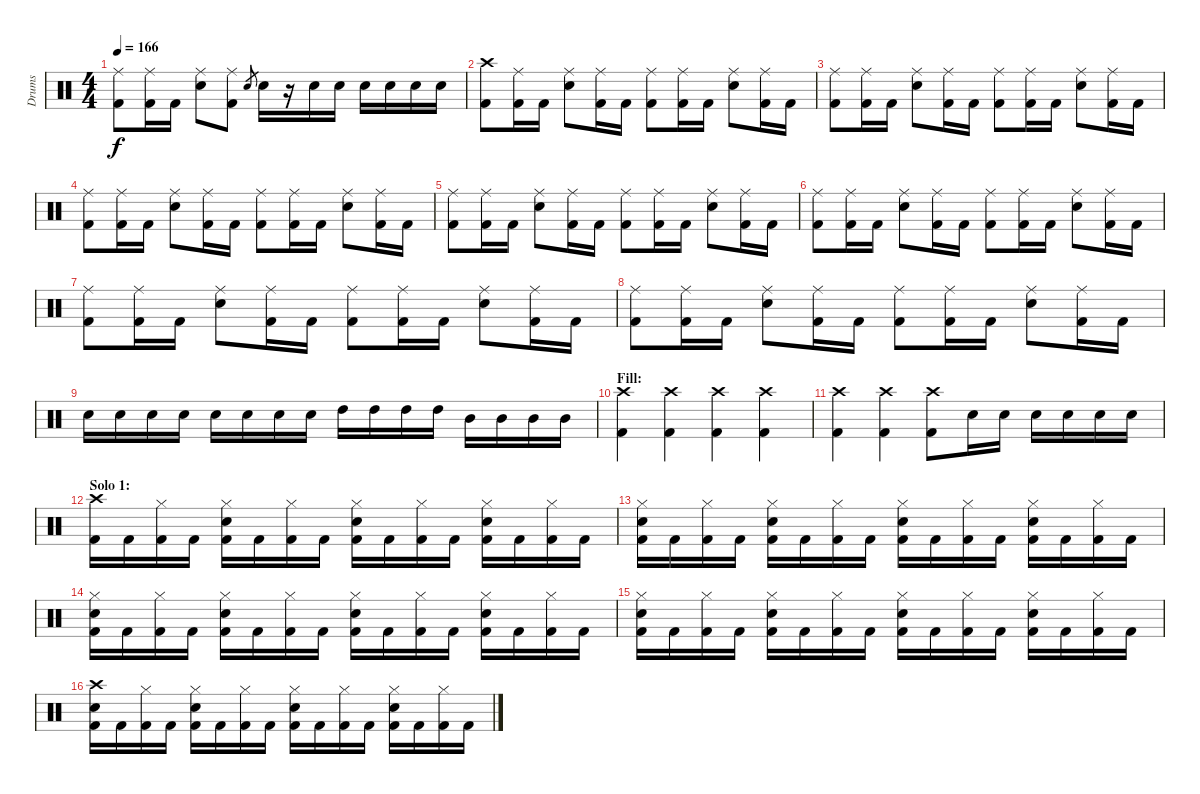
\track ("Drums" "Drums") {instrument percussion}
\staff {score}
\articulation defaults
\ts (4 4)
\tempo 166
\clef neutral
\ks c
("Ride (middle)" "Kick (hit) 2").8{dy f} ("Ride (middle)" "Kick (hit) 2").16 "Kick (hit) 2".16 ("Ride (middle)" "Electric Snare (hit)").8 ("Ride (middle)" "Kick (hit) 2").8 "Electric Snare (hit)".8{gr} "Electric Snare (hit)".16 r.16 "Electric Snare (hit)".16 "Electric Snare (hit)".16 "Electric Snare (hit)".16 "Electric Snare (hit)".16 "Electric Snare (hit)".16 "Electric Snare (hit)".16 |
("Crash high (hit)" "Kick (hit) 2").8 ("Ride (middle)" "Kick (hit) 2").16 "Kick (hit) 2".16 ("Ride (middle)" "Electric Snare (hit)").8 ("Ride (middle)" "Kick (hit) 2").16 "Kick (hit) 2".16 ("Ride (middle)" "Kick (hit) 2").8 ("Ride (middle)" "Kick (hit) 2").16 "Kick (hit) 2".16 ("Ride (middle)" "Electric Snare (hit)").8 ("Ride (middle)" "Kick (hit) 2").16 "Kick (hit) 2".16 |
("Ride (middle)" "Kick (hit) 2").8 ("Ride (middle)" "Kick (hit) 2").16 "Kick (hit) 2".16 ("Ride (middle)" "Electric Snare (hit)").8 ("Ride (middle)" "Kick (hit) 2").16 "Kick (hit) 2".16 ("Ride (middle)" "Kick (hit) 2").8 ("Ride (middle)" "Kick (hit) 2").16 "Kick (hit) 2".16 ("Ride (middle)" "Electric Snare (hit)").8 ("Ride (middle)" "Kick (hit) 2").16 "Kick (hit) 2".16 |
("Ride (middle)" "Kick (hit) 2").8 ("Ride (middle)" "Kick (hit) 2").16 "Kick (hit) 2".16 ("Ride (middle)" "Electric Snare (hit)").8 ("Ride (middle)" "Kick (hit) 2").16 "Kick (hit) 2".16 ("Ride (middle)" "Kick (hit) 2").8 ("Ride (middle)" "Kick (hit) 2").16 "Kick (hit) 2".16 ("Ride (middle)" "Electric Snare (hit)").8 ("Ride (middle)" "Kick (hit) 2").16 "Kick (hit) 2".16 |
("Ride (middle)" "Kick (hit) 2").8 ("Ride (middle)" "Kick (hit) 2").16 "Kick (hit) 2".16 ("Ride (middle)" "Electric Snare (hit)").8 ("Ride (middle)" "Kick (hit) 2").16 "Kick (hit) 2".16 ("Ride (middle)" "Kick (hit) 2").8 ("Ride (middle)" "Kick (hit) 2").16 "Kick (hit) 2".16 ("Ride (middle)" "Electric Snare (hit)").8 ("Ride (middle)" "Kick (hit) 2").16 "Kick (hit) 2".16 |
("Ride (middle)" "Kick (hit) 2").8 ("Ride (middle)" "Kick (hit) 2").16 "Kick (hit) 2".16 ("Ride (middle)" "Electric Snare (hit)").8 ("Ride (middle)" "Kick (hit) 2").16 "Kick (hit) 2".16 ("Ride (middle)" "Kick (hit) 2").8 ("Ride (middle)" "Kick (hit) 2").16 "Kick (hit) 2".16 ("Ride (middle)" "Electric Snare (hit)").8 ("Ride (middle)" "Kick (hit) 2").16 "Kick (hit) 2".16 |
("Ride (middle)" "Kick (hit) 2").8 ("Ride (middle)" "Kick (hit) 2").16 "Kick (hit) 2".16 ("Ride (middle)" "Electric Snare (hit)").8 ("Ride (middle)" "Kick (hit) 2").16 "Kick (hit) 2".16 ("Ride (middle)" "Kick (hit) 2").8 ("Ride (middle)" "Kick (hit) 2").16 "Kick (hit) 2".16 ("Ride (middle)" "Electric Snare (hit)").8 ("Ride (middle)" "Kick (hit) 2").16 "Kick (hit) 2".16 |
("Ride (middle)" "Kick (hit) 2").8 ("Ride (middle)" "Kick (hit) 2").16 "Kick (hit) 2".16 ("Ride (middle)" "Electric Snare (hit)").8 ("Ride (middle)" "Kick (hit) 2").16 "Kick (hit) 2".16 ("Ride (middle)" "Kick (hit) 2").8 ("Ride (middle)" "Kick (hit) 2").16 "Kick (hit) 2".16 ("Ride (middle)" "Electric Snare (hit)").8 ("Ride (middle)" "Kick (hit) 2").16 "Kick (hit) 2".16 |
"Electric Snare (hit)".16 "Electric Snare (hit)".16 "Electric Snare (hit)".16 "Electric Snare (hit)".16 "Electric Snare (hit)".16 "Electric Snare (hit)".16 "Electric Snare (hit)".16 "Electric Snare (hit)".16 "High Tom (hit)".16 "High Tom (hit)".16 "High Tom (hit)".16 "High Tom (hit)".16 "Mid Tom (hit)".16 "Mid Tom (hit)".16 "Mid Tom (hit)".16 "Mid Tom (hit)".16 |
\section ("" "Fill:")
("Crash high (hit)" "Kick (hit) 2").4 ("Crash high (hit)" "Kick (hit) 2").4 ("Crash high (hit)" "Kick (hit) 2").4 ("Crash high (hit)" "Kick (hit) 2").4 |
("Crash high (hit)" "Kick (hit) 2").4 ("Crash high (hit)" "Kick (hit) 2").4 ("Crash high (hit)" "Kick (hit) 2").8 "Electric Snare (hit)".16 "Electric Snare (hit)".16 "Electric Snare (hit)".16 "Electric Snare (hit)".16 "Electric Snare (hit)".16 "Electric Snare (hit)".16 |
\section ("" "Solo 1:")
("Crash high (hit)" "Kick (hit) 2").16 "Kick (hit) 2".16 ("Hi-Hat (closed)" "Kick (hit) 2").16 "Kick (hit) 2".16 ("Hi-Hat (closed)" "Electric Snare (hit)" "Kick (hit) 2").16 "Kick (hit) 2".16 ("Hi-Hat (closed)" "Kick (hit) 2").16 "Kick (hit) 2".16 ("Hi-Hat (closed)" "Electric Snare (hit)" "Kick (hit) 2").16 "Kick (hit) 2".16 ("Hi-Hat (closed)" "Kick (hit) 2").16 "Kick (hit) 2".16 ("Hi-Hat (closed)" "Electric Snare (hit)" "Kick (hit) 2").16 "Kick (hit) 2".16 ("Hi-Hat (closed)" "Kick (hit) 2").16 "Kick (hit) 2".16 |
("Hi-Hat (closed)" "Electric Snare (hit)" "Kick (hit) 2").16 "Kick (hit) 2".16 ("Hi-Hat (closed)" "Kick (hit) 2").16 "Kick (hit) 2".16 ("Hi-Hat (closed)" "Electric Snare (hit)" "Kick (hit) 2").16 "Kick (hit) 2".16 ("Hi-Hat (closed)" "Kick (hit) 2").16 "Kick (hit) 2".16 ("Hi-Hat (closed)" "Electric Snare (hit)" "Kick (hit) 2").16 "Kick (hit) 2".16 ("Hi-Hat (closed)" "Kick (hit) 2").16 "Kick (hit) 2".16 ("Hi-Hat (closed)" "Electric Snare (hit)" "Kick (hit) 2").16 "Kick (hit) 2".16 ("Hi-Hat (closed)" "Kick (hit) 2").16 "Kick (hit) 2".16 |
("Hi-Hat (closed)" "Electric Snare (hit)" "Kick (hit) 2").16 "Kick (hit) 2".16 ("Hi-Hat (closed)" "Kick (hit) 2").16 "Kick (hit) 2".16 ("Hi-Hat (closed)" "Electric Snare (hit)" "Kick (hit) 2").16 "Kick (hit) 2".16 ("Hi-Hat (closed)" "Kick (hit) 2").16 "Kick (hit) 2".16 ("Hi-Hat (closed)" "Electric Snare (hit)" "Kick (hit) 2").16 "Kick (hit) 2".16 ("Hi-Hat (closed)" "Kick (hit) 2").16 "Kick (hit) 2".16 ("Hi-Hat (closed)" "Electric Snare (hit)" "Kick (hit) 2").16 "Kick (hit) 2".16 ("Hi-Hat (closed)" "Kick (hit) 2").16 "Kick (hit) 2".16 |
("Hi-Hat (closed)" "Electric Snare (hit)" "Kick (hit) 2").16 "Kick (hit) 2".16 ("Hi-Hat (closed)" "Kick (hit) 2").16 "Kick (hit) 2".16 ("Hi-Hat (closed)" "Electric Snare (hit)" "Kick (hit) 2").16 "Kick (hit) 2".16 ("Hi-Hat (closed)" "Kick (hit) 2").16 "Kick (hit) 2".16 ("Hi-Hat (closed)" "Electric Snare (hit)" "Kick (hit) 2").16 "Kick (hit) 2".16 ("Hi-Hat (closed)" "Kick (hit) 2").16 "Kick (hit) 2".16 ("Hi-Hat (closed)" "Electric Snare (hit)" "Kick (hit) 2").16 "Kick (hit) 2".16 ("Hi-Hat (closed)" "Kick (hit) 2").16 "Kick (hit) 2".16 |
("Crash high (hit)" "Electric Snare (hit)" "Kick (hit) 2").16 "Kick (hit) 2".16 ("Hi-Hat (closed)" "Kick (hit) 2").16 "Kick (hit) 2".16 ("Hi-Hat (closed)" "Electric Snare (hit)" "Kick (hit) 2").16 "Kick (hit) 2".16 ("Hi-Hat (closed)" "Kick (hit) 2").16 "Kick (hit) 2".16 ("Hi-Hat (closed)" "Electric Snare (hit)" "Kick (hit) 2").16 "Kick (hit) 2".16 ("Hi-Hat (closed)" "Kick (hit) 2").16 "Kick (hit) 2".16 ("Hi-Hat (closed)" "Electric Snare (hit)" "Kick (hit) 2").16 "Kick (hit) 2".16 ("Hi-Hat (closed)" "Kick (hit) 2").16 "Kick (hit) 2".16
